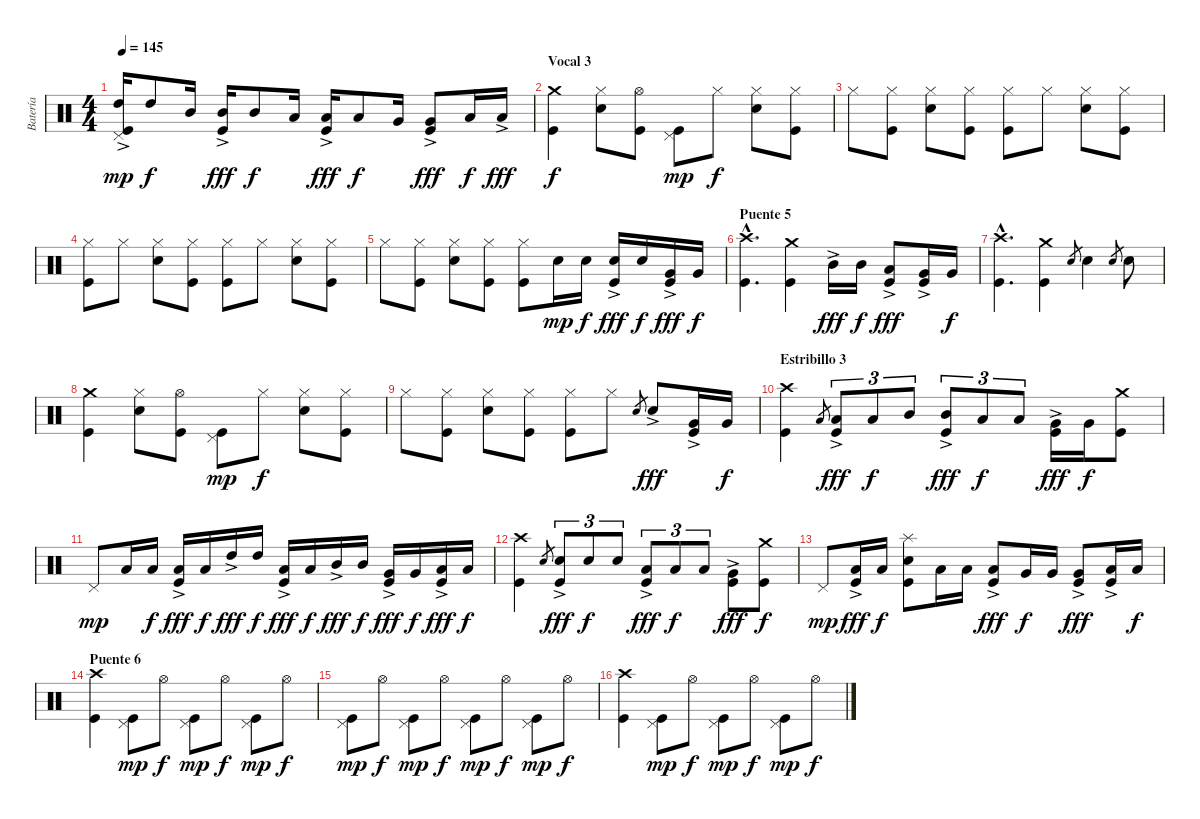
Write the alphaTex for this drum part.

\track ("Batería" "Batería") {instrument percussion}
\staff {score}
\articulation defaults
\ts (4 4)
\tempo 145
\clef neutral
\ks c
("Kick (hit)" "High Tom (hit)"{ac} "Pedal Hi-Hat (hit)").16{dy mp} "High Tom (hit)".8{dy f} "Mid Tom (hit)".16 ("Kick (hit)" "Mid Tom (hit)"{ac}).16{dy fff} "Mid Tom (hit)".8{dy f} "Low Tom (hit)".16 ("Kick (hit)" "Low Tom (hit)"{ac}).16{dy fff} "Low Tom (hit)".8{dy f} "Very Low Tom (hit)".16 ("Kick (hit)" "Very Low Tom (hit)"{ac}).8{dy fff} "Low Floor Tom (hit)".16{dy f} "Low Floor Tom (hit)"{ac}.16{dy fff} |
\section ("" "Vocal 3")
("Kick (hit)" "Crash medium (hit)").4{dy f} ("Electric Snare (hit)" "Hi-Hat (closed)").8 ("Kick (hit)" "Hi-Hat (open)").8 ("Kick (hit)" "Pedal Hi-Hat (hit)").8{dy mp} "Hi-Hat (closed)".8{dy f} ("Electric Snare (hit)" "Hi-Hat (closed)").8 ("Kick (hit)" "Hi-Hat (closed)").8 |
"Hi-Hat (closed)".8 ("Kick (hit)" "Hi-Hat (closed)").8 ("Electric Snare (hit)" "Hi-Hat (closed)").8 ("Kick (hit)" "Hi-Hat (closed)").8 ("Kick (hit)" "Hi-Hat (closed)").8 "Hi-Hat (closed)".8 ("Electric Snare (hit)" "Hi-Hat (closed)").8 ("Kick (hit)" "Hi-Hat (closed)").8 |
("Kick (hit)" "Hi-Hat (closed)").8 "Hi-Hat (closed)".8 ("Electric Snare (hit)" "Hi-Hat (closed)").8 ("Kick (hit)" "Hi-Hat (closed)").8 ("Kick (hit)" "Hi-Hat (closed)").8 "Hi-Hat (closed)".8 ("Electric Snare (hit)" "Hi-Hat (closed)").8 ("Kick (hit)" "Hi-Hat (closed)").8 |
"Hi-Hat (closed)".8 ("Kick (hit)" "Hi-Hat (closed)").8 ("Electric Snare (hit)" "Hi-Hat (closed)").8 ("Kick (hit)" "Hi-Hat (closed)").8 ("Kick (hit)" "Hi-Hat (closed)").8 "Electric Snare (hit)".16{dy mp} "Electric Snare (hit)".16{dy f} ("Kick (hit)" "Electric Snare (hit)"{ac}).16{dy fff} "Electric Snare (hit)".16{dy f} ("Kick (hit)" "Very Low Tom (hit)"{ac}).16{dy fff} "Very Low Tom (hit)".16{dy f} |
\section ("" "Puente 5")
("Kick (hit)"{hac} "Crash high (hit)"{hac}).4{d} ("Kick (hit)" "Crash medium (hit)").4 "Mid Tom (hit)"{ac}.16{dy fff} "Mid Tom (hit)".16{dy f} ("Kick (hit)" "Low Tom (hit)"{ac}).8{dy fff} ("Kick (hit)" "Very Low Tom (hit)"{ac}).16 "Very Low Tom (hit)".16{dy f} |
("Kick (hit)"{hac} "Crash high (hit)"{hac}).4{d} ("Kick (hit)" "Crash medium (hit)").4 "Electric Snare (hit)".8{gr} "Electric Snare (hit)".4 "Electric Snare (hit)".8{gr} "Electric Snare (hit)".8 |
("Kick (hit)" "Crash medium (hit)").4 ("Electric Snare (hit)" "Hi-Hat (closed)").8 ("Kick (hit)" "Hi-Hat (open)").8 ("Kick (hit)" "Pedal Hi-Hat (hit)").8{dy mp} "Hi-Hat (closed)".8{dy f} ("Electric Snare (hit)" "Hi-Hat (closed)").8 ("Kick (hit)" "Hi-Hat (closed)").8 |
"Hi-Hat (closed)".8 ("Kick (hit)" "Hi-Hat (closed)").8 ("Electric Snare (hit)" "Hi-Hat (closed)").8 ("Kick (hit)" "Hi-Hat (closed)").8 ("Kick (hit)" "Hi-Hat (closed)").8 "Hi-Hat (closed)".8 "Electric Snare (hit)".8{gr} "Electric Snare (hit)"{ac}.8{dy fff} ("Kick (hit)" "Very Low Tom (hit)"{ac}).16 "Very Low Tom (hit)".16{dy f} |
\section ("" "Estribillo 3")
("Kick (hit)" "Crash high (hit)").4 "Low Tom (hit)".8{gr} ("Kick (hit)" "Low Tom (hit)"{ac}).8{tu (3 2) dy fff} "Low Tom (hit)".8{tu (3 2) dy f} "Mid Tom (hit)".8{tu (3 2)} ("Kick (hit)" "Mid Tom (hit)"{ac}).8{tu (3 2) dy fff} "Low Tom (hit)".8{tu (3 2) dy f} "Low Tom (hit)".8{tu (3 2)} ("Kick (hit)" "Very Low Tom (hit)"{ac}).16{dy fff} "Very Low Tom (hit)".16{dy f} ("Kick (hit)" "Crash medium (hit)").8 |
"Pedal Hi-Hat (hit)".8{dy mp} "Low Tom (hit)".16 "Low Tom (hit)".16{dy f} ("Kick (hit)" "Low Tom (hit)"{ac}).16{dy fff} "Low Tom (hit)".16{dy f} "High Tom (hit)"{ac}.16{dy fff} "High Tom (hit)".16{dy f} ("Kick (hit)" "Low Tom (hit)"{ac}).16{dy fff} "Low Tom (hit)".16{dy f} "Mid Tom (hit)"{ac}.16{dy fff} "Mid Tom (hit)".16{dy f} ("Kick (hit)" "Very Low Tom (hit)"{ac}).16{dy fff} "Very Low Tom (hit)".16{dy f} ("Kick (hit)" "Low Floor Tom (hit)"{ac}).16{dy fff} "Low Floor Tom (hit)".16{dy f} |
("Kick (hit)" "Crash high (hit)").4 "Electric Snare (hit)".8{gr} ("Kick (hit)" "Electric Snare (hit)"{ac}).8{tu (3 2) dy fff} "Electric Snare (hit)".8{tu (3 2) dy f} "Electric Snare (hit)".8{tu (3 2)} ("Kick (hit)" "Low Tom (hit)"{ac}).8{tu (3 2) dy fff} "Low Tom (hit)".8{tu (3 2) dy f} "Low Tom (hit)".8{tu (3 2)} ("Kick (hit)" "Very Low Tom (hit)"{ac}).8{dy fff} ("Kick (hit)" "Crash medium (hit)").8{dy f} |
"Pedal Hi-Hat (hit)".8{dy mp} ("Kick (hit)" "Low Tom (hit)"{ac}).16{dy fff} "Low Tom (hit)".16{dy f} ("Kick (hit)" "Electric Snare (hit)" "Splash (hit)").8 "Low Tom (hit)".16 "Low Tom (hit)".16 ("Kick (hit)" "Low Tom (hit)"{ac}).8{dy fff} "Very Low Tom (hit)".16{dy f} "Very Low Tom (hit)".16 ("Kick (hit)" "Very Low Tom (hit)"{ac}).8{dy fff} ("Kick (hit)" "Low Floor Tom (hit)"{ac}).16 "Low Floor Tom (hit)".16{dy f} |
\section ("" "Puente 6")
("Kick (hit)" "Crash high (hit)").4 ("Kick (hit)" "Pedal Hi-Hat (hit)").8{dy mp} "Hi-Hat (open)".8{dy f} ("Kick (hit)" "Pedal Hi-Hat (hit)").8{dy mp} "Hi-Hat (open)".8{dy f} ("Kick (hit)" "Pedal Hi-Hat (hit)").8{dy mp} "Hi-Hat (open)".8{dy f} |
("Kick (hit)" "Pedal Hi-Hat (hit)").8{dy mp} "Hi-Hat (open)".8{dy f} ("Kick (hit)" "Pedal Hi-Hat (hit)").8{dy mp} "Hi-Hat (open)".8{dy f} ("Kick (hit)" "Pedal Hi-Hat (hit)").8{dy mp} "Hi-Hat (open)".8{dy f} ("Kick (hit)" "Pedal Hi-Hat (hit)").8{dy mp} "Hi-Hat (open)".8{dy f} |
("Kick (hit)" "Crash high (hit)").4 ("Kick (hit)" "Pedal Hi-Hat (hit)").8{dy mp} "Hi-Hat (open)".8{dy f} ("Kick (hit)" "Pedal Hi-Hat (hit)").8{dy mp} "Hi-Hat (open)".8{dy f} ("Kick (hit)" "Pedal Hi-Hat (hit)").8{dy mp} "Hi-Hat (open)".8{dy f}
